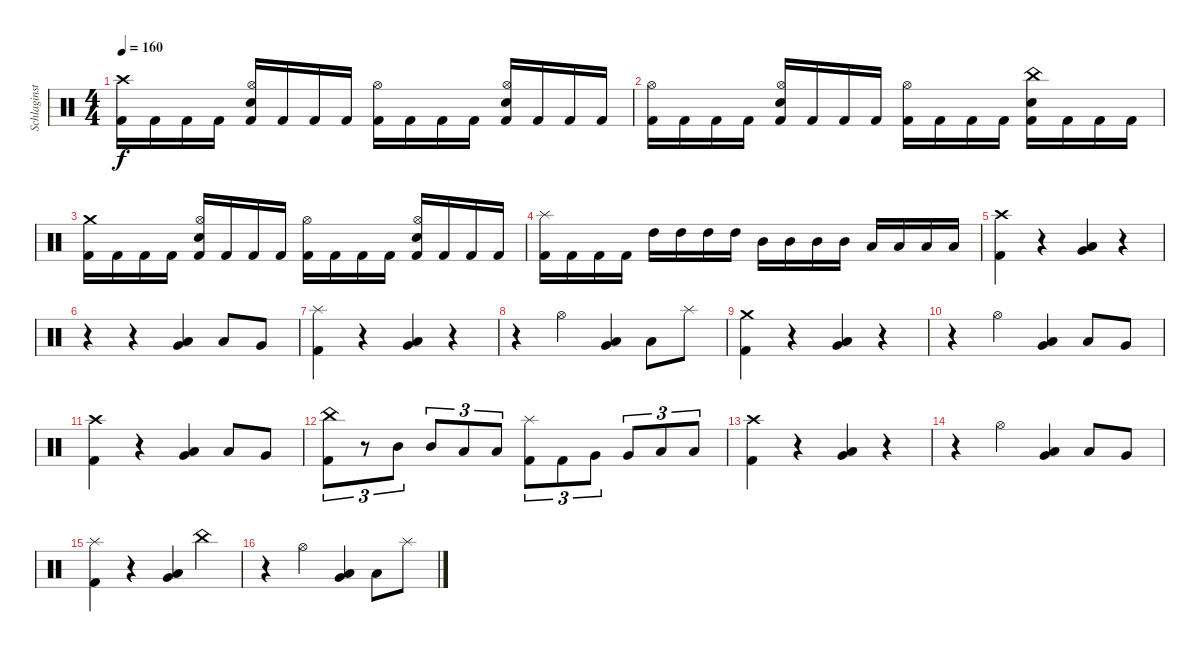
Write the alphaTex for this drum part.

\track ("Schlaginstrumente - Auswahl" "Schlaginst") {instrument percussion}
\staff {score}
\articulation defaults
\ts (4 4)
\tempo 160
\clef neutral
\ks c
("Crash high (hit)" "Kick (hit) 2").16{dy f} "Kick (hit) 2".16 "Kick (hit) 2".16 "Kick (hit) 2".16 ("Hi-Hat (open)" "Snare (hit) 2" "Kick (hit) 2").16 "Kick (hit) 2".16 "Kick (hit) 2".16 "Kick (hit) 2".16 ("Hi-Hat (open)" "Kick (hit) 2").16 "Kick (hit) 2".16 "Kick (hit) 2".16 "Kick (hit) 2".16 ("Hi-Hat (open)" "Snare (hit) 2" "Kick (hit) 2").16 "Kick (hit) 2".16 "Kick (hit) 2".16 "Kick (hit) 2".16 |
("Hi-Hat (open)" "Kick (hit) 2").16 "Kick (hit) 2".16 "Kick (hit) 2".16 "Kick (hit) 2".16 ("Hi-Hat (open)" "Snare (hit) 2" "Kick (hit) 2").16 "Kick (hit) 2".16 "Kick (hit) 2".16 "Kick (hit) 2".16 ("Hi-Hat (open)" "Kick (hit) 2").16 "Kick (hit) 2".16 "Kick (hit) 2".16 "Kick (hit) 2".16 ("China (hit)" "Snare (hit) 2" "Kick (hit) 2").16 "Kick (hit) 2".16 "Kick (hit) 2".16 "Kick (hit) 2".16 |
("Crash medium (hit)" "Kick (hit) 2").16 "Kick (hit) 2".16 "Kick (hit) 2".16 "Kick (hit) 2".16 ("Hi-Hat (open)" "Snare (hit) 2" "Kick (hit) 2").16 "Kick (hit) 2".16 "Kick (hit) 2".16 "Kick (hit) 2".16 ("Hi-Hat (open)" "Kick (hit) 2").16 "Kick (hit) 2".16 "Kick (hit) 2".16 "Kick (hit) 2".16 ("Hi-Hat (open)" "Snare (hit) 2" "Kick (hit) 2").16 "Kick (hit) 2".16 "Kick (hit) 2".16 "Kick (hit) 2".16 |
("Splash (hit)" "Kick (hit) 2").16 "Kick (hit) 2".16 "Kick (hit) 2".16 "Kick (hit) 2".16 "High Tom (hit)".16 "High Tom (hit)".16 "High Tom (hit)".16 "High Tom (hit)".16 "Mid Tom (hit)".16 "Mid Tom (hit)".16 "Mid Tom (hit)".16 "Mid Tom (hit)".16 "Low Tom (hit)".16 "Low Tom (hit)".16 "Low Tom (hit)".16 "Low Tom (hit)".16 |
("Crash high (hit)" "Kick (hit) 2").4 r.4 ("Very Low Tom (hit)" "Low Floor Tom (hit)").4 r.4 |
r.4 r.4 ("Very Low Tom (hit)" "Low Floor Tom (hit)").4 "Low Floor Tom (hit)".8 "Very Low Tom (hit)".8 |
("Splash (hit)" "Kick (hit) 2").4 r.4 ("Very Low Tom (hit)" "Low Floor Tom (hit)").4 r.4 |
r.4 "Hi-Hat (open)".4 ("Very Low Tom (hit)" "Low Floor Tom (hit)").4 "Low Floor Tom (hit)".8 "Splash (hit)".8 |
("Crash medium (hit)" "Kick (hit) 2").4 r.4 ("Very Low Tom (hit)" "Low Floor Tom (hit)").4 r.4 |
r.4 "Hi-Hat (open)".4 ("Very Low Tom (hit)" "Low Floor Tom (hit)").4 "Low Floor Tom (hit)".8 "Very Low Tom (hit)".8 |
("Crash high (hit)" "Kick (hit) 2").4 r.4 ("Very Low Tom (hit)" "Low Floor Tom (hit)").4 "Low Floor Tom (hit)".8 "Very Low Tom (hit)".8 |
("China (hit)" "Kick (hit) 2").8{tu (3 2)} r.8{tu (3 2)} "Mid Tom (hit)".8{tu (3 2)} "Mid Tom (hit)".8{tu (3 2)} "Low Tom (hit)".8{tu (3 2)} "Low Tom (hit)".8{tu (3 2)} ("Splash (hit)" "Kick (hit) 2").8{tu (3 2)} "Kick (hit) 2".8{tu (3 2)} "Very Low Tom (hit)".8{tu (3 2)} "Very Low Tom (hit)".8{tu (3 2)} "Low Floor Tom (hit)".8{tu (3 2)} "Low Floor Tom (hit)".8{tu (3 2)} |
("Crash high (hit)" "Kick (hit) 2").4 r.4 ("Very Low Tom (hit)" "Low Floor Tom (hit)").4 r.4 |
r.4 "Hi-Hat (open)".4 ("Very Low Tom (hit)" "Low Floor Tom (hit)").4 "Low Floor Tom (hit)".8 "Very Low Tom (hit)".8 |
("Splash (hit)" "Kick (hit) 2").4 r.4 ("Very Low Tom (hit)" "Low Floor Tom (hit)").4 "China (hit)".4 |
r.4 "Hi-Hat (open)".4 ("Very Low Tom (hit)" "Low Floor Tom (hit)").4 "Low Floor Tom (hit)".8 "Splash (hit)".8
